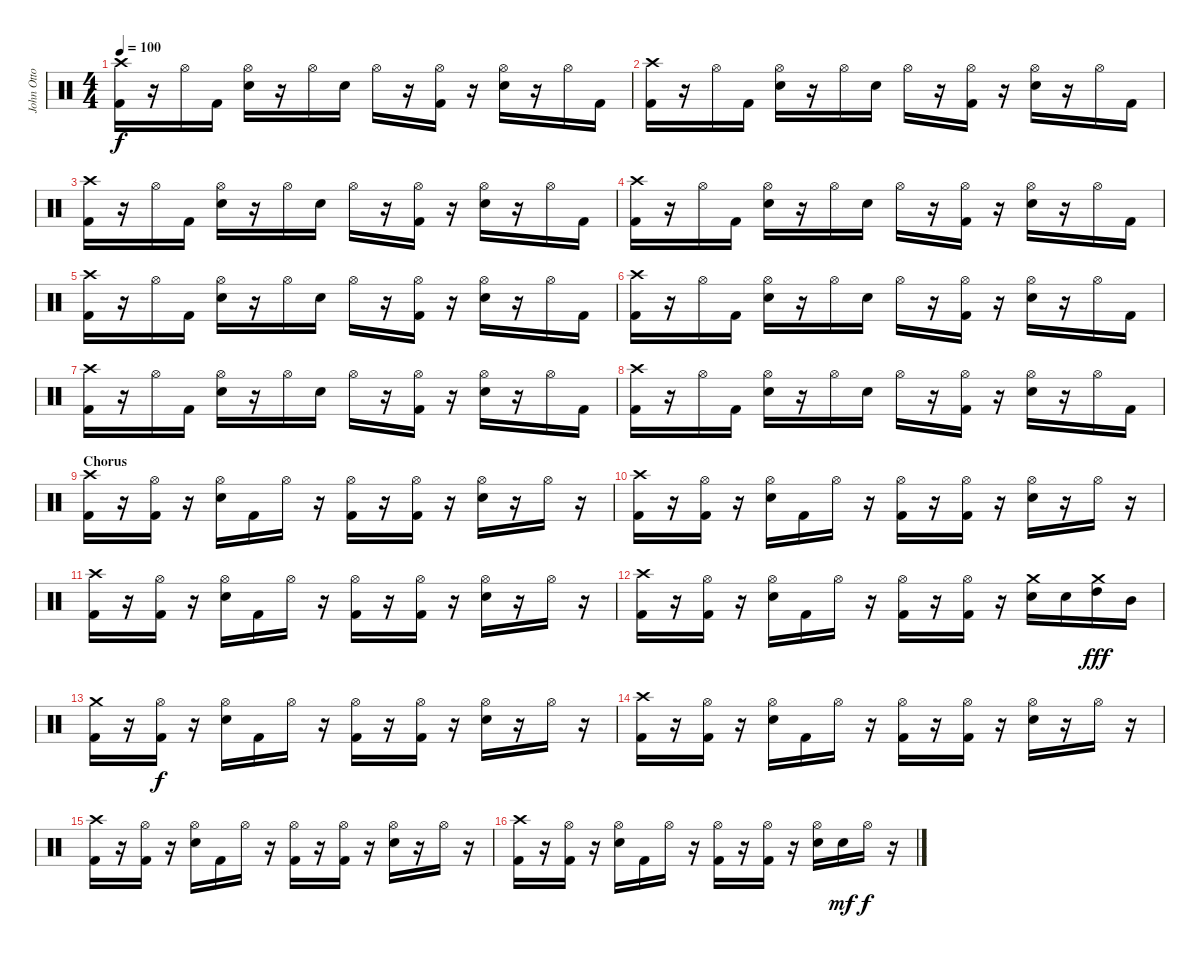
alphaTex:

\track ("John Otto - Drums" "John Otto ") {instrument percussion}
\staff {score}
\articulation defaults
\ts (4 4)
\tempo 100
\clef neutral
\ks c
("Crash high (hit)" "Kick (hit) 2").16{dy f} r.16 "Hi-Hat (open)".16 "Kick (hit) 2".16 ("Hi-Hat (open)" "Electric Snare (hit)").16 r.16 "Hi-Hat (open)".16 "Electric Snare (hit)".16 "Hi-Hat (open)".16 r.16 ("Hi-Hat (open)" "Kick (hit) 2").16 r.16 ("Hi-Hat (open)" "Electric Snare (hit)").16 r.16 "Hi-Hat (open)".16 "Kick (hit) 2".16 |
("Crash high (hit)" "Kick (hit) 2").16 r.16 "Hi-Hat (open)".16 "Kick (hit) 2".16 ("Hi-Hat (open)" "Electric Snare (hit)").16 r.16 "Hi-Hat (open)".16 "Electric Snare (hit)".16 "Hi-Hat (open)".16 r.16 ("Hi-Hat (open)" "Kick (hit) 2").16 r.16 ("Hi-Hat (open)" "Electric Snare (hit)").16 r.16 "Hi-Hat (open)".16 "Kick (hit) 2".16 |
("Crash high (hit)" "Kick (hit) 2").16 r.16 "Hi-Hat (open)".16 "Kick (hit) 2".16 ("Hi-Hat (open)" "Electric Snare (hit)").16 r.16 "Hi-Hat (open)".16 "Electric Snare (hit)".16 "Hi-Hat (open)".16 r.16 ("Hi-Hat (open)" "Kick (hit) 2").16 r.16 ("Hi-Hat (open)" "Electric Snare (hit)").16 r.16 "Hi-Hat (open)".16 "Kick (hit) 2".16 |
("Crash high (hit)" "Kick (hit) 2").16 r.16 "Hi-Hat (open)".16 "Kick (hit) 2".16 ("Hi-Hat (open)" "Electric Snare (hit)").16 r.16 "Hi-Hat (open)".16 "Electric Snare (hit)".16 "Hi-Hat (open)".16 r.16 ("Hi-Hat (open)" "Kick (hit) 2").16 r.16 ("Hi-Hat (open)" "Electric Snare (hit)").16 r.16 "Hi-Hat (open)".16 "Kick (hit) 2".16 |
("Crash high (hit)" "Kick (hit) 2").16 r.16 "Hi-Hat (open)".16 "Kick (hit) 2".16 ("Hi-Hat (open)" "Electric Snare (hit)").16 r.16 "Hi-Hat (open)".16 "Electric Snare (hit)".16 "Hi-Hat (open)".16 r.16 ("Hi-Hat (open)" "Kick (hit) 2").16 r.16 ("Hi-Hat (open)" "Electric Snare (hit)").16 r.16 "Hi-Hat (open)".16 "Kick (hit) 2".16 |
("Crash high (hit)" "Kick (hit) 2").16 r.16 "Hi-Hat (open)".16 "Kick (hit) 2".16 ("Hi-Hat (open)" "Electric Snare (hit)").16 r.16 "Hi-Hat (open)".16 "Electric Snare (hit)".16 "Hi-Hat (open)".16 r.16 ("Hi-Hat (open)" "Kick (hit) 2").16 r.16 ("Hi-Hat (open)" "Electric Snare (hit)").16 r.16 "Hi-Hat (open)".16 "Kick (hit) 2".16 |
("Crash high (hit)" "Kick (hit) 2").16 r.16 "Hi-Hat (open)".16 "Kick (hit) 2".16 ("Hi-Hat (open)" "Electric Snare (hit)").16 r.16 "Hi-Hat (open)".16 "Electric Snare (hit)".16 "Hi-Hat (open)".16 r.16 ("Hi-Hat (open)" "Kick (hit) 2").16 r.16 ("Hi-Hat (open)" "Electric Snare (hit)").16 r.16 "Hi-Hat (open)".16 "Kick (hit) 2".16 |
("Crash high (hit)" "Kick (hit) 2").16 r.16 "Hi-Hat (open)".16 "Kick (hit) 2".16 ("Hi-Hat (open)" "Electric Snare (hit)").16 r.16 "Hi-Hat (open)".16 "Electric Snare (hit)".16 "Hi-Hat (open)".16 r.16 ("Hi-Hat (open)" "Kick (hit) 2").16 r.16 ("Hi-Hat (open)" "Electric Snare (hit)").16 r.16 "Hi-Hat (open)".16 "Kick (hit) 2".16 |
\section ("" "Chorus")
("Crash high (hit)" "Kick (hit) 2").16 r.16 ("Hi-Hat (open)" "Kick (hit) 2").16 r.16 ("Hi-Hat (open)" "Electric Snare (hit)").16 "Kick (hit) 2".16 "Hi-Hat (open)".16 r.16 ("Hi-Hat (open)" "Kick (hit) 2").16 r.16 ("Hi-Hat (open)" "Kick (hit) 2").16 r.16 ("Hi-Hat (open)" "Electric Snare (hit)").16 r.16 "Hi-Hat (open)".16 r.16 |
("Crash high (hit)" "Kick (hit) 2").16 r.16 ("Hi-Hat (open)" "Kick (hit) 2").16 r.16 ("Hi-Hat (open)" "Electric Snare (hit)").16 "Kick (hit) 2".16 "Hi-Hat (open)".16 r.16 ("Hi-Hat (open)" "Kick (hit) 2").16 r.16 ("Hi-Hat (open)" "Kick (hit) 2").16 r.16 ("Hi-Hat (open)" "Electric Snare (hit)").16 r.16 "Hi-Hat (open)".16 r.16 |
("Crash high (hit)" "Kick (hit) 2").16 r.16 ("Hi-Hat (open)" "Kick (hit) 2").16 r.16 ("Hi-Hat (open)" "Electric Snare (hit)").16 "Kick (hit) 2".16 "Hi-Hat (open)".16 r.16 ("Hi-Hat (open)" "Kick (hit) 2").16 r.16 ("Hi-Hat (open)" "Kick (hit) 2").16 r.16 ("Hi-Hat (open)" "Electric Snare (hit)").16 r.16 "Hi-Hat (open)".16 r.16 |
("Crash high (hit)" "Kick (hit) 2").16 r.16 ("Hi-Hat (open)" "Kick (hit) 2").16 r.16 ("Hi-Hat (open)" "Electric Snare (hit)").16 "Kick (hit) 2".16 "Hi-Hat (open)".16 r.16 ("Hi-Hat (open)" "Kick (hit) 2").16 r.16 ("Hi-Hat (open)" "Kick (hit) 2").16 r.16 ("Crash medium (hit)" "Electric Snare (hit)").16 "Electric Snare (hit)".16 ("Crash medium (hit)" "High Tom (hit)").16{dy fff} "Mid Tom (hit)".16 |
("Crash medium (hit)" "Kick (hit) 2").16 r.16 ("Hi-Hat (open)" "Kick (hit) 2").16{dy f} r.16 ("Hi-Hat (open)" "Electric Snare (hit)").16 "Kick (hit) 2".16 "Hi-Hat (open)".16 r.16 ("Hi-Hat (open)" "Kick (hit) 2").16 r.16 ("Hi-Hat (open)" "Kick (hit) 2").16 r.16 ("Hi-Hat (open)" "Electric Snare (hit)").16 r.16 "Hi-Hat (open)".16 r.16 |
("Crash high (hit)" "Kick (hit) 2").16 r.16 ("Hi-Hat (open)" "Kick (hit) 2").16 r.16 ("Hi-Hat (open)" "Electric Snare (hit)").16 "Kick (hit) 2".16 "Hi-Hat (open)".16 r.16 ("Hi-Hat (open)" "Kick (hit) 2").16 r.16 ("Hi-Hat (open)" "Kick (hit) 2").16 r.16 ("Hi-Hat (open)" "Electric Snare (hit)").16 r.16 "Hi-Hat (open)".16 r.16 |
("Crash high (hit)" "Kick (hit) 2").16 r.16 ("Hi-Hat (open)" "Kick (hit) 2").16 r.16 ("Hi-Hat (open)" "Electric Snare (hit)").16 "Kick (hit) 2".16 "Hi-Hat (open)".16 r.16 ("Hi-Hat (open)" "Kick (hit) 2").16 r.16 ("Hi-Hat (open)" "Kick (hit) 2").16 r.16 ("Hi-Hat (open)" "Electric Snare (hit)").16 r.16 "Hi-Hat (open)".16 r.16 |
("Crash high (hit)" "Kick (hit) 2").16 r.16 ("Hi-Hat (open)" "Kick (hit) 2").16 r.16 ("Hi-Hat (open)" "Electric Snare (hit)").16 "Kick (hit) 2".16 "Hi-Hat (open)".16 r.16 ("Hi-Hat (open)" "Kick (hit) 2").16 r.16 ("Hi-Hat (open)" "Kick (hit) 2").16 r.16 ("Hi-Hat (open)" "Electric Snare (hit)").16 "Electric Snare (hit)".16{dy mf} "Hi-Hat (open)".16{dy f} r.16
